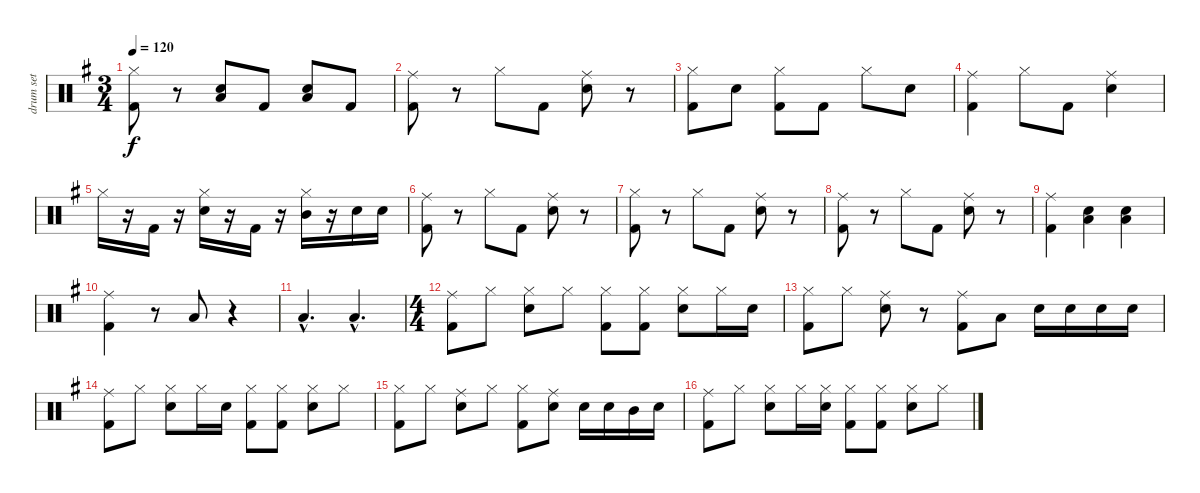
\track ("drum set" "drum set") {instrument percussion}
\staff {score}
\articulation defaults
\ts (3 4)
\tempo 120
\clef neutral
\ks g
("Hi-Hat (closed)" "Kick (hit) 2").8{dy f} r.8 ("Snare (hit) 2" "Low Tom (hit)").8 "Kick (hit) 2".8 ("Snare (hit) 2" "Low Tom (hit)").8 "Kick (hit) 2".8 |
("Ride (middle)" "Kick (hit) 2").8 r.8 "Hi-Hat (closed)".8 "Kick (hit) 2".8 ("Ride (middle)" "Snare (hit) 2").8 r.8 |
("Hi-Hat (closed)" "Kick (hit) 2").8 "Snare (hit) 2".8 ("Hi-Hat (closed)" "Kick (hit) 2").8 "Kick (hit) 2".8 "Hi-Hat (closed)".8 "Snare (hit) 2".8 |
("Ride (middle)" "Kick (hit) 2").4 "Hi-Hat (closed)".8 "Kick (hit) 2".8 ("Ride (middle)" "Snare (hit) 2").4 |
"Hi-Hat (closed)".16 r.16 "Kick (hit) 2".16 r.16 ("Hi-Hat (closed)" "Snare (hit) 2").16 r.16 "Kick (hit) 2".16 r.16 ("Hi-Hat (closed)" "Mid Tom (hit)").16 r.16 "Snare (hit) 2".16 "Snare (hit) 2".16 |
("Ride (middle)" "Kick (hit) 2").8 r.8 "Hi-Hat (closed)".8 "Kick (hit) 2".8 ("Ride (middle)" "Snare (hit) 2").8 r.8 |
("Hi-Hat (closed)" "Kick (hit) 2").8 r.8 "Hi-Hat (closed)".8 "Kick (hit) 2".8 ("Ride (middle)" "Snare (hit) 2").8 r.8 |
("Ride (middle)" "Kick (hit) 2").8 r.8 "Hi-Hat (closed)".8 "Kick (hit) 2".8 ("Ride (middle)" "Snare (hit) 2").8 r.8 |
("Ride (middle)" "Kick (hit) 2").4 ("Snare (hit) 2" "Low Tom (hit)").4 ("Snare (hit) 2" "Low Tom (hit)").4 |
("Ride (middle)" "Kick (hit) 2").4 r.8 "Low Tom (hit)".8 r.4 |
"Low Tom (hit)"{hac}.4{d} "Low Tom (hit)"{hac}.4{d} |
\ts (4 4)
("Ride (middle)" "Kick (hit) 2").8 "Hi-Hat (closed)".8 ("Hi-Hat (closed)" "Snare (hit) 2").8 "Hi-Hat (closed)".8 ("Hi-Hat (closed)" "Kick (hit) 2").8 ("Hi-Hat (closed)" "Kick (hit) 2").8 ("Hi-Hat (closed)" "Snare (hit) 2").8 "Hi-Hat (closed)".16 "Snare (hit) 2".16 |
("Hi-Hat (closed)" "Kick (hit) 2").8 "Hi-Hat (closed)".8 ("Ride (middle)" "Snare (hit) 2").8 r.8 ("Ride (middle)" "Kick (hit) 2").8 "Low Tom (hit)".8 "Snare (hit) 2".16 "Snare (hit) 2".16 "Snare (hit) 2".16 "Snare (hit) 2".16 |
("Ride (middle)" "Kick (hit) 2").8 "Hi-Hat (closed)".8 ("Hi-Hat (closed)" "Snare (hit) 2").8 "Hi-Hat (closed)".16 "Snare (hit) 2".16 ("Hi-Hat (closed)" "Kick (hit) 2").8 ("Hi-Hat (closed)" "Kick (hit) 2").8 ("Hi-Hat (closed)" "Snare (hit) 2").8 "Hi-Hat (closed)".8 |
("Hi-Hat (closed)" "Kick (hit) 2").8 "Hi-Hat (closed)".8 ("Ride (middle)" "Snare (hit) 2").8 "Hi-Hat (closed)".8 ("Hi-Hat (closed)" "Kick (hit) 2").8 ("Ride (middle)" "Snare (hit) 2").8 "Snare (hit) 2".16 "Snare (hit) 2".16 "Mid Tom (hit)".16 "Snare (hit) 2".16 |
("Ride (middle)" "Kick (hit) 2").8 "Hi-Hat (closed)".8 ("Hi-Hat (closed)" "Snare (hit) 2").8 "Hi-Hat (closed)".16 ("Hi-Hat (closed)" "Snare (hit) 2").16 ("Hi-Hat (closed)" "Kick (hit) 2").8 ("Hi-Hat (closed)" "Kick (hit) 2").8 ("Hi-Hat (closed)" "Snare (hit) 2").8 "Hi-Hat (closed)".8
